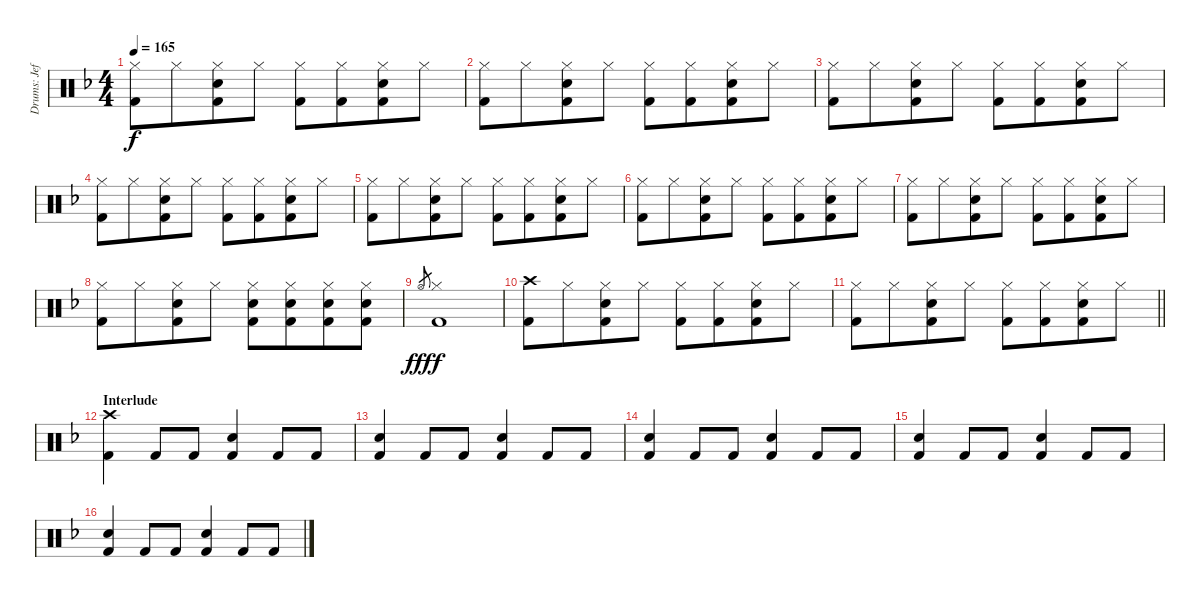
\track ("Drums: Jeff" "Drums: Jef") {instrument percussion}
\staff {score}
\articulation defaults
\ts (4 4)
\tempo 165
\clef neutral
\ks f
("Hi-Hat (closed)" "Kick (hit) 2").8{dy f} "Hi-Hat (closed)".8{beam merge} ("Hi-Hat (closed)" "Snare (hit) 2" "Kick (hit) 2").8 "Hi-Hat (closed)".8{beam split} ("Hi-Hat (closed)" "Kick (hit) 2").8 ("Hi-Hat (closed)" "Kick (hit) 2").8{beam merge} ("Hi-Hat (closed)" "Snare (hit) 2" "Kick (hit) 2").8 "Hi-Hat (closed)".8 |
("Hi-Hat (closed)" "Kick (hit) 2").8 "Hi-Hat (closed)".8{beam merge} ("Hi-Hat (closed)" "Snare (hit) 2" "Kick (hit) 2").8 "Hi-Hat (closed)".8{beam split} ("Hi-Hat (closed)" "Kick (hit) 2").8 ("Hi-Hat (closed)" "Kick (hit) 2").8{beam merge} ("Hi-Hat (closed)" "Snare (hit) 2" "Kick (hit) 2").8 "Hi-Hat (closed)".8 |
("Hi-Hat (closed)" "Kick (hit) 2").8 "Hi-Hat (closed)".8{beam merge} ("Hi-Hat (closed)" "Snare (hit) 2" "Kick (hit) 2").8 "Hi-Hat (closed)".8{beam split} ("Hi-Hat (closed)" "Kick (hit) 2").8 ("Hi-Hat (closed)" "Kick (hit) 2").8{beam merge} ("Hi-Hat (closed)" "Snare (hit) 2" "Kick (hit) 2").8 "Hi-Hat (closed)".8 |
("Hi-Hat (closed)" "Kick (hit) 2").8 "Hi-Hat (closed)".8{beam merge} ("Hi-Hat (closed)" "Snare (hit) 2" "Kick (hit) 2").8 "Hi-Hat (closed)".8{beam split} ("Hi-Hat (closed)" "Kick (hit) 2").8 ("Hi-Hat (closed)" "Kick (hit) 2").8{beam merge} ("Hi-Hat (closed)" "Snare (hit) 2" "Kick (hit) 2").8 "Hi-Hat (closed)".8 |
("Hi-Hat (closed)" "Kick (hit) 2").8 "Hi-Hat (closed)".8{beam merge} ("Hi-Hat (closed)" "Snare (hit) 2" "Kick (hit) 2").8 "Hi-Hat (closed)".8{beam split} ("Hi-Hat (closed)" "Kick (hit) 2").8 ("Hi-Hat (closed)" "Kick (hit) 2").8{beam merge} ("Hi-Hat (closed)" "Snare (hit) 2" "Kick (hit) 2").8 "Hi-Hat (closed)".8 |
("Hi-Hat (closed)" "Kick (hit) 2").8 "Hi-Hat (closed)".8{beam merge} ("Hi-Hat (closed)" "Snare (hit) 2" "Kick (hit) 2").8 "Hi-Hat (closed)".8{beam split} ("Hi-Hat (closed)" "Kick (hit) 2").8 ("Hi-Hat (closed)" "Kick (hit) 2").8{beam merge} ("Hi-Hat (closed)" "Snare (hit) 2" "Kick (hit) 2").8 "Hi-Hat (closed)".8 |
("Hi-Hat (closed)" "Kick (hit) 2").8 "Hi-Hat (closed)".8{beam merge} ("Hi-Hat (closed)" "Snare (hit) 2" "Kick (hit) 2").8 "Hi-Hat (closed)".8{beam split} ("Hi-Hat (closed)" "Kick (hit) 2").8 ("Hi-Hat (closed)" "Kick (hit) 2").8{beam merge} ("Hi-Hat (closed)" "Snare (hit) 2" "Kick (hit) 2").8 "Hi-Hat (closed)".8 |
("Hi-Hat (closed)" "Kick (hit) 2").8 "Hi-Hat (closed)".8{beam merge} ("Hi-Hat (closed)" "Snare (hit) 2" "Kick (hit) 2").8 "Hi-Hat (closed)".8{beam split} ("Hi-Hat (closed)" "Snare (hit) 2" "Kick (hit) 2").8{beam merge} ("Hi-Hat (closed)" "Snare (hit) 2" "Kick (hit) 2").8{beam merge} ("Hi-Hat (closed)" "Snare (hit) 2" "Kick (hit) 2").8{beam merge} ("Hi-Hat (closed)" "Snare (hit) 2" "Kick (hit) 2").8 |
"Hi-Hat (open)".8{gr dy fff} ("Hi-Hat (closed)" "Kick (hit) 2").1{dy f} |
("Crash high (hit)" "Kick (hit) 2").8 "Hi-Hat (closed)".8{beam merge} ("Hi-Hat (closed)" "Snare (hit) 2" "Kick (hit) 2").8 "Hi-Hat (closed)".8{beam split} ("Hi-Hat (closed)" "Kick (hit) 2").8 ("Hi-Hat (closed)" "Kick (hit) 2").8{beam merge} ("Hi-Hat (closed)" "Snare (hit) 2" "Kick (hit) 2").8 "Hi-Hat (closed)".8 |
\barLineRight lightlight
("Hi-Hat (closed)" "Kick (hit) 2").8 "Hi-Hat (closed)".8{beam merge} ("Hi-Hat (closed)" "Snare (hit) 2" "Kick (hit) 2").8 "Hi-Hat (closed)".8{beam split} ("Hi-Hat (closed)" "Kick (hit) 2").8 ("Hi-Hat (closed)" "Kick (hit) 2").8{beam merge} ("Hi-Hat (closed)" "Snare (hit) 2" "Kick (hit) 2").8 "Hi-Hat (closed)".8 |
\section ("" "Interlude")
("Crash high (hit)" "Kick (hit) 2").4 "Kick (hit) 2".8 "Kick (hit) 2".8 ("Snare (hit) 2" "Kick (hit) 2").4 "Kick (hit) 2".8 "Kick (hit) 2".8 |
("Snare (hit) 2" "Kick (hit) 2").4 "Kick (hit) 2".8 "Kick (hit) 2".8 ("Snare (hit) 2" "Kick (hit) 2").4 "Kick (hit) 2".8 "Kick (hit) 2".8 |
("Snare (hit) 2" "Kick (hit) 2").4 "Kick (hit) 2".8 "Kick (hit) 2".8 ("Snare (hit) 2" "Kick (hit) 2").4 "Kick (hit) 2".8 "Kick (hit) 2".8 |
("Snare (hit) 2" "Kick (hit) 2").4 "Kick (hit) 2".8 "Kick (hit) 2".8 ("Snare (hit) 2" "Kick (hit) 2").4 "Kick (hit) 2".8 "Kick (hit) 2".8 |
("Snare (hit) 2" "Kick (hit) 2").4 "Kick (hit) 2".8 "Kick (hit) 2".8 ("Snare (hit) 2" "Kick (hit) 2").4 "Kick (hit) 2".8 "Kick (hit) 2".8
